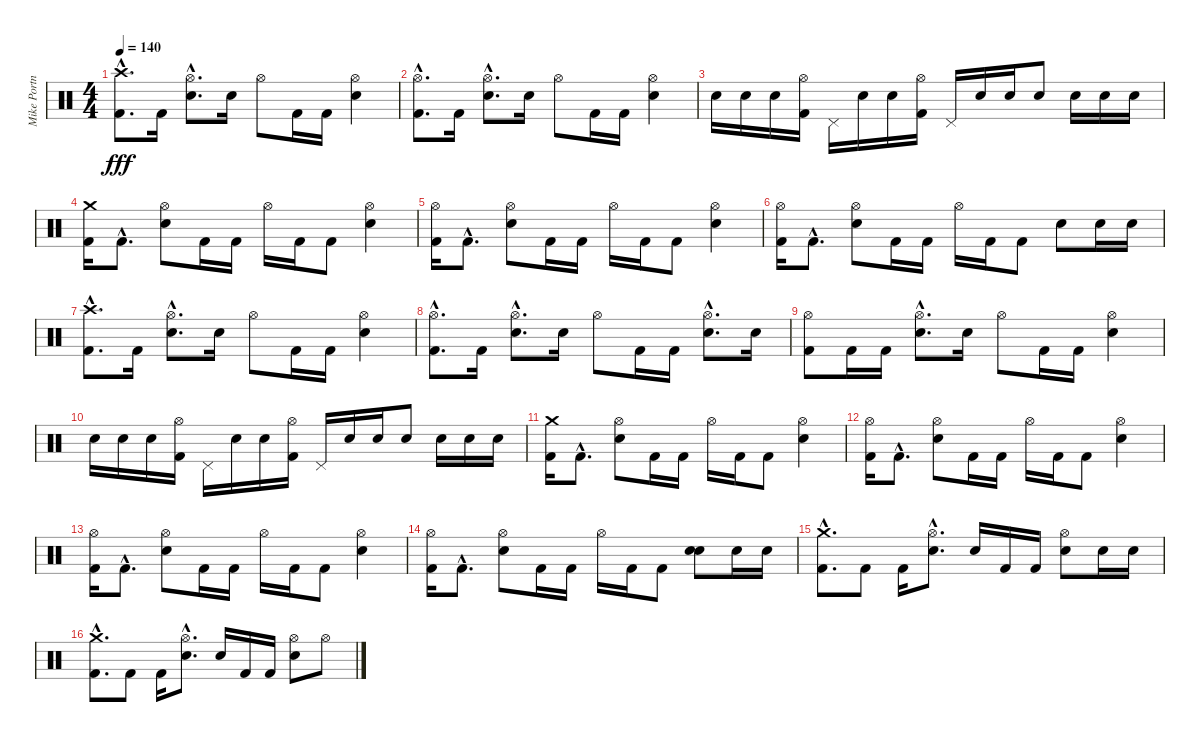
\track ("Mike Portnoy" "Mike Portn") {instrument percussion}
\staff {score}
\articulation defaults
\ts (4 4)
\tempo 140
\clef neutral
\ks c
("Crash high (hit)"{hac} "Kick (hit) 2"{hac}).8{d dy fff} "Kick (hit) 2".16 ("Hi-Hat (open)"{hac} "Snare (hit) 2"{hac}).8{d} "Snare (hit) 2".16 "Hi-Hat (open)".8 "Kick (hit) 2".16 "Kick (hit) 2".16 ("Hi-Hat (open)" "Snare (hit) 2").4 |
("Hi-Hat (open)"{hac} "Kick (hit) 2"{hac}).8{d} "Kick (hit) 2".16 ("Hi-Hat (open)"{hac} "Snare (hit) 2"{hac}).8{d} "Snare (hit) 2".16 "Hi-Hat (open)".8 "Kick (hit) 2".16 "Kick (hit) 2".16 ("Hi-Hat (open)" "Snare (hit) 2").4 |
"Snare (hit) 2".16 "Snare (hit) 2".16 "Snare (hit) 2".16 ("Hi-Hat (open)" "Kick (hit) 2").16 "Pedal Hi-Hat (hit)".16 "Snare (hit) 2".16 "Snare (hit) 2".16 ("Hi-Hat (open)" "Kick (hit) 2").16 "Pedal Hi-Hat (hit)".16 "Snare (hit) 2".16 "Snare (hit) 2".16 "Snare (hit) 2".8 "Snare (hit) 2".16 "Snare (hit) 2".16 "Snare (hit) 2".16 |
("Crash medium (hit)" "Kick (hit) 2").16 "Kick (hit) 2"{hac}.8{d} ("Hi-Hat (open)" "Snare (hit) 2").8 "Kick (hit) 2".16 "Kick (hit) 2".16 "Hi-Hat (open)".16 "Kick (hit) 2".16 "Kick (hit) 2".8 ("Hi-Hat (open)" "Snare (hit) 2").4 |
("Hi-Hat (open)" "Kick (hit) 2").16 "Kick (hit) 2"{hac}.8{d} ("Hi-Hat (open)" "Snare (hit) 2").8 "Kick (hit) 2".16 "Kick (hit) 2".16 "Hi-Hat (open)".16 "Kick (hit) 2".16 "Kick (hit) 2".8 ("Hi-Hat (open)" "Snare (hit) 2").4 |
("Hi-Hat (open)" "Kick (hit) 2").16 "Kick (hit) 2"{hac}.8{d} ("Hi-Hat (open)" "Snare (hit) 2").8 "Kick (hit) 2".16 "Kick (hit) 2".16 "Hi-Hat (open)".16 "Kick (hit) 2".16 "Kick (hit) 2".8 "Snare (hit) 2".8 "Snare (hit) 2".16 "Snare (hit) 2".16 |
("Crash high (hit)"{hac} "Kick (hit) 2"{hac}).8{d} "Kick (hit) 2".16 ("Hi-Hat (open)"{hac} "Snare (hit) 2"{hac}).8{d} "Snare (hit) 2".16 "Hi-Hat (open)".8 "Kick (hit) 2".16 "Kick (hit) 2".16 ("Hi-Hat (open)" "Snare (hit) 2").4 |
("Hi-Hat (open)"{hac} "Kick (hit) 2"{hac}).8{d} "Kick (hit) 2".16 ("Hi-Hat (open)"{hac} "Snare (hit) 2"{hac}).8{d} "Snare (hit) 2".16 "Hi-Hat (open)".8 "Kick (hit) 2".16 "Kick (hit) 2".16 ("Hi-Hat (open)"{hac} "Snare (hit) 2"{hac}).8{d} "Snare (hit) 2".16 |
("Hi-Hat (open)" "Kick (hit) 2").8 "Kick (hit) 2".16 "Kick (hit) 2".16 ("Hi-Hat (open)"{hac} "Snare (hit) 2"{hac}).8{d} "Snare (hit) 2".16 "Hi-Hat (open)".8 "Kick (hit) 2".16 "Kick (hit) 2".16 ("Hi-Hat (open)" "Snare (hit) 2").4 |
"Snare (hit) 2".16 "Snare (hit) 2".16 "Snare (hit) 2".16 ("Hi-Hat (open)" "Kick (hit) 2").16 "Pedal Hi-Hat (hit)".16 "Snare (hit) 2".16 "Snare (hit) 2".16 ("Hi-Hat (open)" "Kick (hit) 2").16 "Pedal Hi-Hat (hit)".16 "Snare (hit) 2".16 "Snare (hit) 2".16 "Snare (hit) 2".8 "Snare (hit) 2".16 "Snare (hit) 2".16 "Snare (hit) 2".16 |
("Crash medium (hit)" "Kick (hit) 2").16 "Kick (hit) 2"{hac}.8{d} ("Hi-Hat (open)" "Snare (hit) 2").8 "Kick (hit) 2".16 "Kick (hit) 2".16 "Hi-Hat (open)".16 "Kick (hit) 2".16 "Kick (hit) 2".8 ("Hi-Hat (open)" "Snare (hit) 2").4 |
("Hi-Hat (open)" "Kick (hit) 2").16 "Kick (hit) 2"{hac}.8{d} ("Hi-Hat (open)" "Snare (hit) 2").8 "Kick (hit) 2".16 "Kick (hit) 2".16 "Hi-Hat (open)".16 "Kick (hit) 2".16 "Kick (hit) 2".8 ("Hi-Hat (open)" "Snare (hit) 2").4 |
("Hi-Hat (open)" "Kick (hit) 2").16 "Kick (hit) 2"{hac}.8{d} ("Hi-Hat (open)" "Snare (hit) 2").8 "Kick (hit) 2".16 "Kick (hit) 2".16 "Hi-Hat (open)".16 "Kick (hit) 2".16 "Kick (hit) 2".8 ("Hi-Hat (open)" "Snare (hit) 2").4 |
("Hi-Hat (open)" "Kick (hit) 2").16 "Kick (hit) 2"{hac}.8{d} ("Hi-Hat (open)" "Snare (hit) 2").8 "Kick (hit) 2".16 "Kick (hit) 2".16 "Hi-Hat (open)".16 "Kick (hit) 2".16 "Kick (hit) 2".8 ("Snare (hit) 2" "Snare (hit) 2").8 "Snare (hit) 2".16 "Snare (hit) 2".16 |
("Crash medium (hit)"{hac} "Kick (hit) 2"{hac}).8{d} "Kick (hit) 2".8 "Kick (hit) 2".16 ("Hi-Hat (open)"{hac} "Snare (hit) 2"{hac}).8{d} "Snare (hit) 2".16 "Kick (hit) 2".16 "Kick (hit) 2".16 ("Hi-Hat (open)" "Snare (hit) 2").8 "Snare (hit) 2".16 "Snare (hit) 2".16 |
("Crash medium (hit)"{hac} "Kick (hit) 2"{hac}).8{d} "Kick (hit) 2".8 "Kick (hit) 2".16 ("Hi-Hat (open)"{hac} "Snare (hit) 2"{hac}).8{d} "Snare (hit) 2".16 "Kick (hit) 2".16 "Kick (hit) 2".16 ("Hi-Hat (open)" "Snare (hit) 2").8 "Hi-Hat (open)".8
